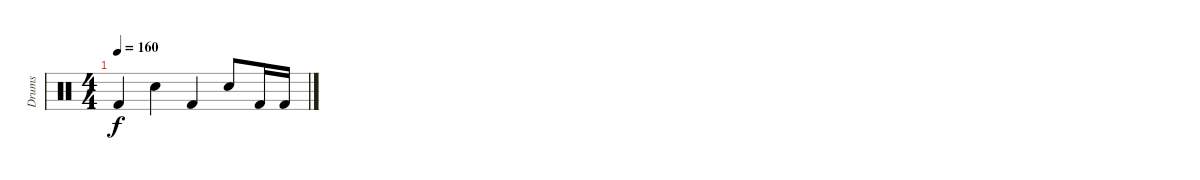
\track ("Drums" "Drums") {instrument percussion}
\staff {score}
\articulation defaults
\ts (4 4)
\tempo 160
\clef neutral
\ks c "Kick (hit) 2".4{dy f} "Snare (hit) 2".4 "Kick (hit) 2".4 "Snare (hit) 2".8 "Kick (hit) 2".16 "Kick (hit) 2".16
